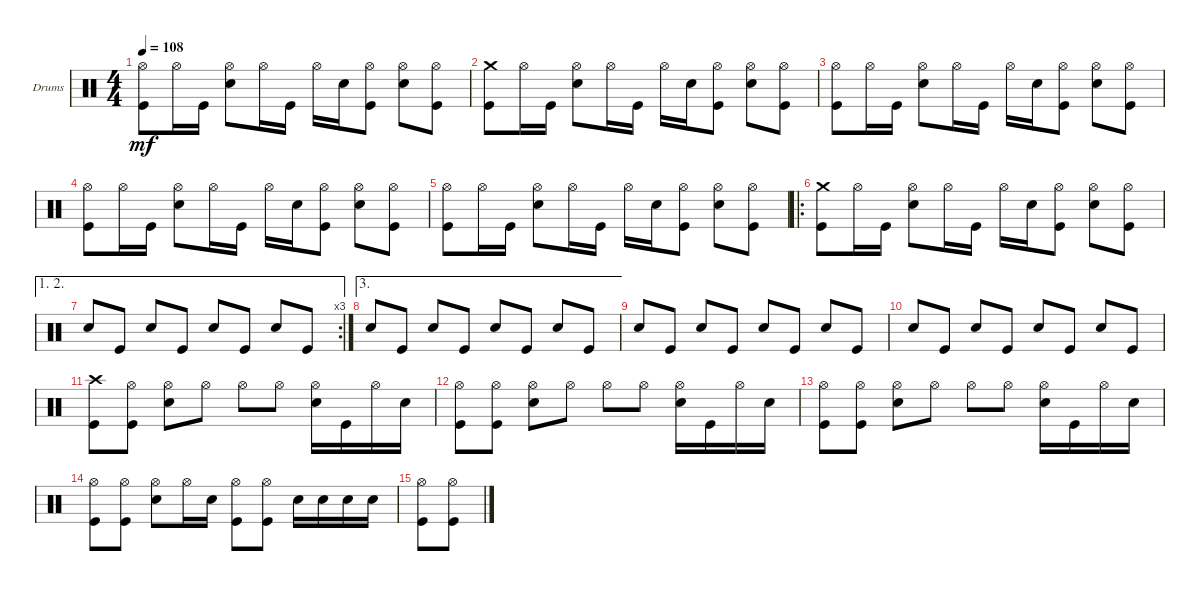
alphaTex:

\defaultSystemsLayout 4
\bracketExtendMode groupsimilarinstruments
\firstSystemTrackNameOrientation horizontal
\otherSystemsTrackNameOrientation horizontal
\track ("Drumkit" "Drums") {instrument percussion}
\staff {score}
\articulation defaults
\ts (4 4)
\tempo 108
\clef neutral
\ks c
("Kick (hit)" "Hi-Hat (open)").8{dy mf} "Hi-Hat (open)".16 "Kick (hit)".16 ("Snare (hit) 2" "Hi-Hat (open)").8 "Hi-Hat (open)".16 "Kick (hit)".16 "Hi-Hat (open)".16 "Snare (hit) 2".16 ("Kick (hit)" "Hi-Hat (open)").8 ("Snare (hit) 2" "Hi-Hat (open)").8 ("Kick (hit)" "Hi-Hat (open)").8 |
("Kick (hit)" "Crash medium (hit)").8 "Hi-Hat (open)".16 "Kick (hit)".16 ("Snare (hit) 2" "Hi-Hat (open)").8 "Hi-Hat (open)".16 "Kick (hit)".16 "Hi-Hat (open)".16 "Snare (hit) 2".16 ("Kick (hit)" "Hi-Hat (open)").8 ("Snare (hit) 2" "Hi-Hat (open)").8 ("Kick (hit)" "Hi-Hat (open)").8 |
("Kick (hit)" "Hi-Hat (open)").8 "Hi-Hat (open)".16 "Kick (hit)".16 ("Snare (hit) 2" "Hi-Hat (open)").8 "Hi-Hat (open)".16 "Kick (hit)".16 "Hi-Hat (open)".16 "Snare (hit) 2".16 ("Kick (hit)" "Hi-Hat (open)").8 ("Snare (hit) 2" "Hi-Hat (open)").8 ("Kick (hit)" "Hi-Hat (open)").8 |
("Kick (hit)" "Hi-Hat (open)").8 "Hi-Hat (open)".16 "Kick (hit)".16 ("Snare (hit) 2" "Hi-Hat (open)").8 "Hi-Hat (open)".16 "Kick (hit)".16 "Hi-Hat (open)".16 "Snare (hit) 2".16 ("Kick (hit)" "Hi-Hat (open)").8 ("Snare (hit) 2" "Hi-Hat (open)").8 ("Kick (hit)" "Hi-Hat (open)").8 |
("Kick (hit)" "Hi-Hat (open)").8 "Hi-Hat (open)".16 "Kick (hit)".16 ("Snare (hit) 2" "Hi-Hat (open)").8 "Hi-Hat (open)".16 "Kick (hit)".16 "Hi-Hat (open)".16 "Snare (hit) 2".16 ("Kick (hit)" "Hi-Hat (open)").8 ("Snare (hit) 2" "Hi-Hat (open)").8 ("Kick (hit)" "Hi-Hat (open)").8 |
\ro
("Kick (hit)" "Crash medium (hit)").8 "Hi-Hat (open)".16 "Kick (hit)".16 ("Snare (hit) 2" "Hi-Hat (open)").8 "Hi-Hat (open)".16 "Kick (hit)".16 "Hi-Hat (open)".16 "Snare (hit) 2".16 ("Kick (hit)" "Hi-Hat (open)").8 ("Snare (hit) 2" "Hi-Hat (open)").8 ("Kick (hit)" "Hi-Hat (open)").8 |
\ae (1 2)
\rc 3 "Snare (hit) 2".8 "Kick (hit)".8 "Snare (hit) 2".8 "Kick (hit)".8 "Snare (hit) 2".8 "Kick (hit)".8 "Snare (hit) 2".8 "Kick (hit)".8
|
\ae 3 "Snare (hit) 2".8 "Kick (hit)".8 "Snare (hit) 2".8 "Kick (hit)".8 "Snare (hit) 2".8 "Kick (hit)".8 "Snare (hit) 2".8 "Kick (hit)".8
|
"Snare (hit) 2".8 "Kick (hit)".8 "Snare (hit) 2".8 "Kick (hit)".8 "Snare (hit) 2".8 "Kick (hit)".8 "Snare (hit) 2".8 "Kick (hit)".8 |
"Snare (hit) 2".8 "Kick (hit)".8 "Snare (hit) 2".8 "Kick (hit)".8 "Snare (hit) 2".8 "Kick (hit)".8 "Snare (hit) 2".8 "Kick (hit)".8 |
("Kick (hit)" "Crash high (hit)").8 ("Kick (hit)" "Hi-Hat (open)").8 ("Snare (hit) 2" "Hi-Hat (open)").8 "Hi-Hat (open)".8 "Hi-Hat (open)".8 "Hi-Hat (open)".8 ("Snare (hit) 2" "Hi-Hat (open)").16 "Kick (hit)".16 "Hi-Hat (open)".16 "Snare (hit) 2".16 |
("Kick (hit)" "Hi-Hat (open)").8 ("Kick (hit)" "Hi-Hat (open)").8 ("Snare (hit) 2" "Hi-Hat (open)").8 "Hi-Hat (open)".8 "Hi-Hat (open)".8 "Hi-Hat (open)".8 ("Snare (hit) 2" "Hi-Hat (open)").16 "Kick (hit)".16 "Hi-Hat (open)".16 "Snare (hit) 2".16 |
("Kick (hit)" "Hi-Hat (open)").8 ("Kick (hit)" "Hi-Hat (open)").8 ("Snare (hit) 2" "Hi-Hat (open)").8 "Hi-Hat (open)".8 "Hi-Hat (open)".8 "Hi-Hat (open)".8 ("Snare (hit) 2" "Hi-Hat (open)").16 "Kick (hit)".16 "Hi-Hat (open)".16 "Snare (hit) 2".16 |
("Kick (hit)" "Hi-Hat (open)").8 ("Kick (hit)" "Hi-Hat (open)").8 ("Snare (hit) 2" "Hi-Hat (open)").8 "Hi-Hat (open)".16 "Snare (hit) 2".16 ("Kick (hit)" "Hi-Hat (open)").8 ("Kick (hit)" "Hi-Hat (open)").8 "Snare (hit) 2".16 "Snare (hit) 2".16 "Snare (hit) 2".16 "Snare (hit) 2".16 |
("Kick (hit)" "Hi-Hat (open)").8 ("Kick (hit)" "Hi-Hat (open)").8
